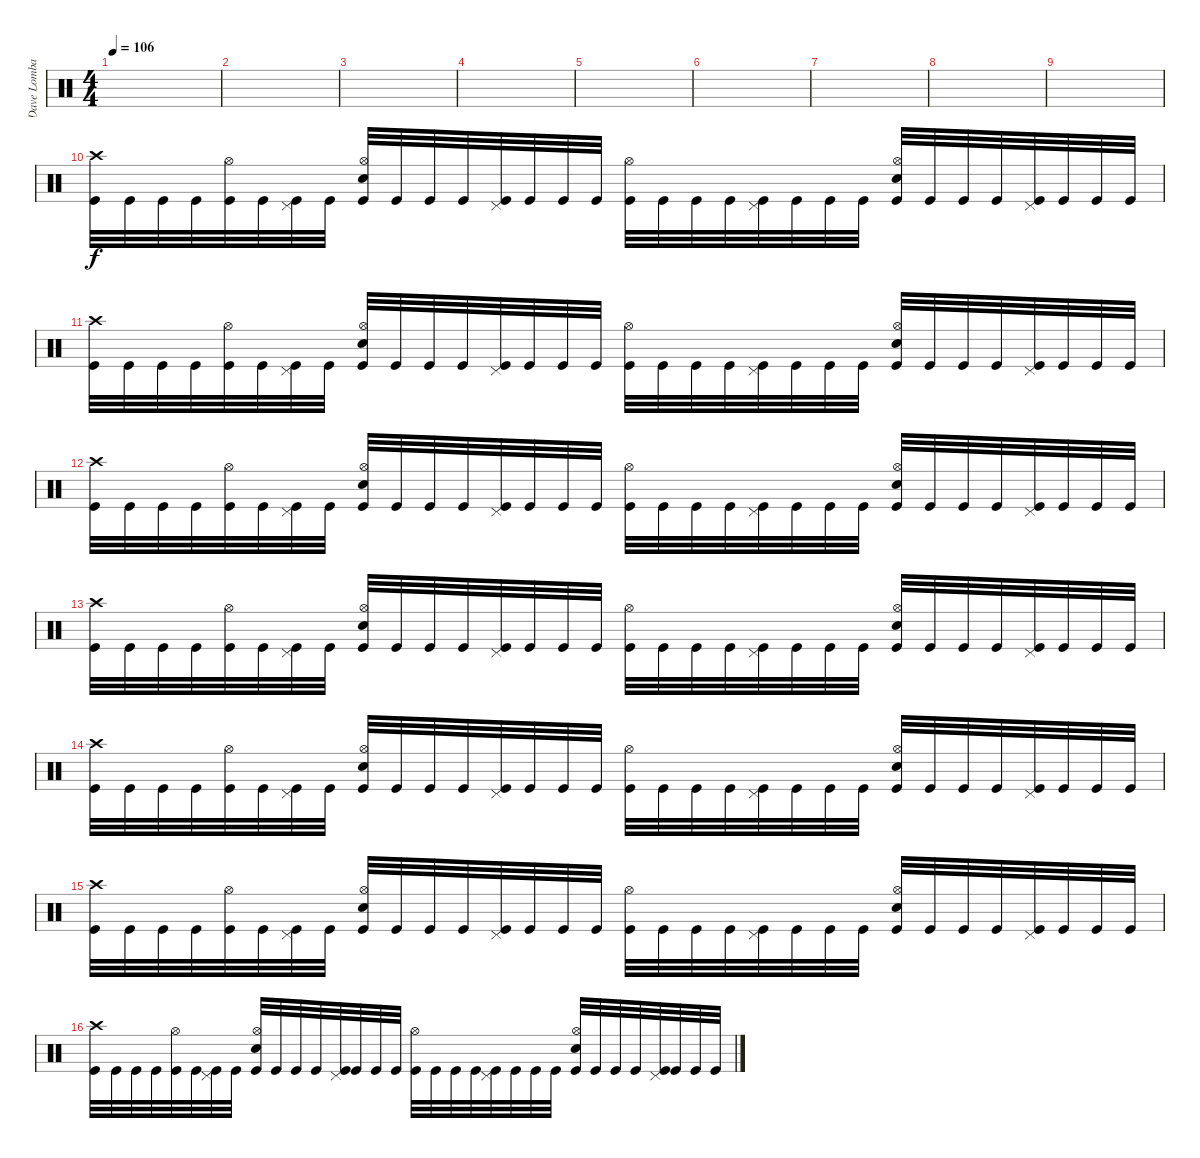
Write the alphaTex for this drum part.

\track ("Dave Lombardo" "Dave Lomba") {instrument percussion}
\staff {score}
\articulation defaults
\ts (4 4)
\tempo 106
\clef neutral
\ks c
|
|
|
|
|
|
|
|
|
("Crash high (hit)" "Kick (hit)").32 "Kick (hit)".32 "Kick (hit)".32 "Kick (hit)".32 ("Hi-Hat (open)" "Kick (hit)").32 "Kick (hit)".32 ("Pedal Hi-Hat (hit)" "Kick (hit)").32 "Kick (hit)".32 ("Hi-Hat (open)" "Snare (hit) 2" "Kick (hit)").32 "Kick (hit)".32 "Kick (hit)".32 "Kick (hit)".32 ("Pedal Hi-Hat (hit)" "Kick (hit)").32 "Kick (hit)".32 "Kick (hit)".32 "Kick (hit)".32 ("Hi-Hat (open)" "Kick (hit)").32 "Kick (hit)".32 "Kick (hit)".32 "Kick (hit)".32 ("Pedal Hi-Hat (hit)" "Kick (hit)").32 "Kick (hit)".32 "Kick (hit)".32 "Kick (hit)".32 ("Hi-Hat (open)" "Snare (hit) 2" "Kick (hit)").32 "Kick (hit)".32 "Kick (hit)".32 "Kick (hit)".32 ("Pedal Hi-Hat (hit)" "Kick (hit)").32 "Kick (hit)".32 "Kick (hit)".32 "Kick (hit)".32 |
("Crash high (hit)" "Kick (hit)").32 "Kick (hit)".32 "Kick (hit)".32 "Kick (hit)".32 ("Hi-Hat (open)" "Kick (hit)").32 "Kick (hit)".32 ("Pedal Hi-Hat (hit)" "Kick (hit)").32 "Kick (hit)".32 ("Hi-Hat (open)" "Snare (hit) 2" "Kick (hit)").32 "Kick (hit)".32 "Kick (hit)".32 "Kick (hit)".32 ("Pedal Hi-Hat (hit)" "Kick (hit)").32 "Kick (hit)".32 "Kick (hit)".32 "Kick (hit)".32 ("Hi-Hat (open)" "Kick (hit)").32 "Kick (hit)".32 "Kick (hit)".32 "Kick (hit)".32 ("Pedal Hi-Hat (hit)" "Kick (hit)").32 "Kick (hit)".32 "Kick (hit)".32 "Kick (hit)".32 ("Hi-Hat (open)" "Snare (hit) 2" "Kick (hit)").32 "Kick (hit)".32 "Kick (hit)".32 "Kick (hit)".32 ("Pedal Hi-Hat (hit)" "Kick (hit)").32 "Kick (hit)".32 "Kick (hit)".32 "Kick (hit)".32 |
("Crash high (hit)" "Kick (hit)").32 "Kick (hit)".32 "Kick (hit)".32 "Kick (hit)".32 ("Hi-Hat (open)" "Kick (hit)").32 "Kick (hit)".32 ("Pedal Hi-Hat (hit)" "Kick (hit)").32 "Kick (hit)".32 ("Hi-Hat (open)" "Snare (hit) 2" "Kick (hit)").32 "Kick (hit)".32 "Kick (hit)".32 "Kick (hit)".32 ("Pedal Hi-Hat (hit)" "Kick (hit)").32 "Kick (hit)".32 "Kick (hit)".32 "Kick (hit)".32 ("Hi-Hat (open)" "Kick (hit)").32 "Kick (hit)".32 "Kick (hit)".32 "Kick (hit)".32 ("Pedal Hi-Hat (hit)" "Kick (hit)").32 "Kick (hit)".32 "Kick (hit)".32 "Kick (hit)".32 ("Hi-Hat (open)" "Snare (hit) 2" "Kick (hit)").32 "Kick (hit)".32 "Kick (hit)".32 "Kick (hit)".32 ("Pedal Hi-Hat (hit)" "Kick (hit)").32 "Kick (hit)".32 "Kick (hit)".32 "Kick (hit)".32 |
("Crash high (hit)" "Kick (hit)").32 "Kick (hit)".32 "Kick (hit)".32 "Kick (hit)".32 ("Hi-Hat (open)" "Kick (hit)").32 "Kick (hit)".32 ("Pedal Hi-Hat (hit)" "Kick (hit)").32 "Kick (hit)".32 ("Hi-Hat (open)" "Snare (hit) 2" "Kick (hit)").32 "Kick (hit)".32 "Kick (hit)".32 "Kick (hit)".32 ("Pedal Hi-Hat (hit)" "Kick (hit)").32 "Kick (hit)".32 "Kick (hit)".32 "Kick (hit)".32 ("Hi-Hat (open)" "Kick (hit)").32 "Kick (hit)".32 "Kick (hit)".32 "Kick (hit)".32 ("Pedal Hi-Hat (hit)" "Kick (hit)").32 "Kick (hit)".32 "Kick (hit)".32 "Kick (hit)".32 ("Hi-Hat (open)" "Snare (hit) 2" "Kick (hit)").32 "Kick (hit)".32 "Kick (hit)".32 "Kick (hit)".32 ("Pedal Hi-Hat (hit)" "Kick (hit)").32 "Kick (hit)".32 "Kick (hit)".32 "Kick (hit)".32 |
("Crash high (hit)" "Kick (hit)").32 "Kick (hit)".32 "Kick (hit)".32 "Kick (hit)".32 ("Hi-Hat (open)" "Kick (hit)").32 "Kick (hit)".32 ("Pedal Hi-Hat (hit)" "Kick (hit)").32 "Kick (hit)".32 ("Hi-Hat (open)" "Snare (hit) 2" "Kick (hit)").32 "Kick (hit)".32 "Kick (hit)".32 "Kick (hit)".32 ("Pedal Hi-Hat (hit)" "Kick (hit)").32 "Kick (hit)".32 "Kick (hit)".32 "Kick (hit)".32 ("Hi-Hat (open)" "Kick (hit)").32 "Kick (hit)".32 "Kick (hit)".32 "Kick (hit)".32 ("Pedal Hi-Hat (hit)" "Kick (hit)").32 "Kick (hit)".32 "Kick (hit)".32 "Kick (hit)".32 ("Hi-Hat (open)" "Snare (hit) 2" "Kick (hit)").32 "Kick (hit)".32 "Kick (hit)".32 "Kick (hit)".32 ("Pedal Hi-Hat (hit)" "Kick (hit)").32 "Kick (hit)".32 "Kick (hit)".32 "Kick (hit)".32 |
("Crash high (hit)" "Kick (hit)").32 "Kick (hit)".32 "Kick (hit)".32 "Kick (hit)".32 ("Hi-Hat (open)" "Kick (hit)").32 "Kick (hit)".32 ("Pedal Hi-Hat (hit)" "Kick (hit)").32 "Kick (hit)".32 ("Hi-Hat (open)" "Snare (hit) 2" "Kick (hit)").32 "Kick (hit)".32 "Kick (hit)".32 "Kick (hit)".32 ("Pedal Hi-Hat (hit)" "Kick (hit)").32 "Kick (hit)".32 "Kick (hit)".32 "Kick (hit)".32 ("Hi-Hat (open)" "Kick (hit)").32 "Kick (hit)".32 "Kick (hit)".32 "Kick (hit)".32 ("Pedal Hi-Hat (hit)" "Kick (hit)").32 "Kick (hit)".32 "Kick (hit)".32 "Kick (hit)".32 ("Hi-Hat (open)" "Snare (hit) 2" "Kick (hit)").32 "Kick (hit)".32 "Kick (hit)".32 "Kick (hit)".32 ("Pedal Hi-Hat (hit)" "Kick (hit)").32 "Kick (hit)".32 "Kick (hit)".32 "Kick (hit)".32 |
("Crash high (hit)" "Kick (hit)").32 "Kick (hit)".32 "Kick (hit)".32 "Kick (hit)".32 ("Hi-Hat (open)" "Kick (hit)").32 "Kick (hit)".32 ("Pedal Hi-Hat (hit)" "Kick (hit)").32 "Kick (hit)".32 ("Hi-Hat (open)" "Snare (hit) 2" "Kick (hit)").32 "Kick (hit)".32 "Kick (hit)".32 "Kick (hit)".32 ("Pedal Hi-Hat (hit)" "Kick (hit)").32 "Kick (hit)".32 "Kick (hit)".32 "Kick (hit)".32 ("Hi-Hat (open)" "Kick (hit)").32 "Kick (hit)".32 "Kick (hit)".32 "Kick (hit)".32 ("Pedal Hi-Hat (hit)" "Kick (hit)").32 "Kick (hit)".32 "Kick (hit)".32 "Kick (hit)".32 ("Hi-Hat (open)" "Snare (hit) 2" "Kick (hit)").32 "Kick (hit)".32 "Kick (hit)".32 "Kick (hit)".32 ("Pedal Hi-Hat (hit)" "Kick (hit)").32 "Kick (hit)".32 "Kick (hit)".32 "Kick (hit)".32
